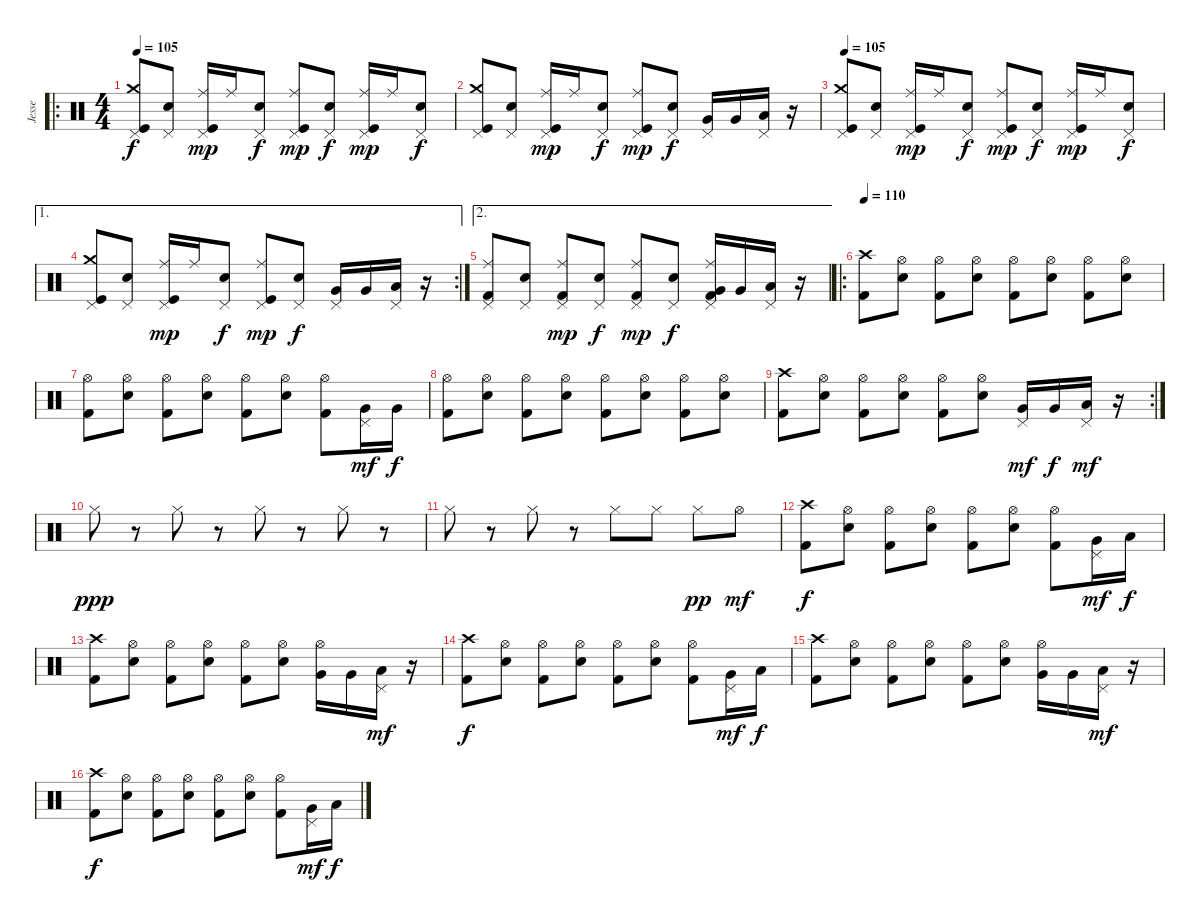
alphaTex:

\track ("Jesse" "Jesse") {instrument percussion}
\staff {score}
\articulation defaults
\ro
\ts (4 4)
\tempo 105
\clef neutral
\ks c
("Pedal Hi-Hat (hit)" "Crash medium (hit)" "Kick (hit)").8{dy f} ("Pedal Hi-Hat (hit)" "Electric Snare (hit)").8 ("Pedal Hi-Hat (hit)" "Ride (middle)" "Kick (hit)").16{dy mp} "Ride (middle)".16 ("Pedal Hi-Hat (hit)" "Electric Snare (hit)").8{dy f} ("Pedal Hi-Hat (hit)" "Ride (middle)" "Kick (hit)").8{dy mp} ("Pedal Hi-Hat (hit)" "Electric Snare (hit)").8{dy f} ("Pedal Hi-Hat (hit)" "Ride (middle)" "Kick (hit)").16{dy mp} "Ride (middle)".16 ("Pedal Hi-Hat (hit)" "Electric Snare (hit)").8{dy f} |
("Pedal Hi-Hat (hit)" "Crash medium (hit)" "Kick (hit)").8 ("Pedal Hi-Hat (hit)" "Electric Snare (hit)").8 ("Pedal Hi-Hat (hit)" "Ride (middle)" "Kick (hit)").16{dy mp} "Ride (middle)".16 ("Pedal Hi-Hat (hit)" "Electric Snare (hit)").8{dy f} ("Pedal Hi-Hat (hit)" "Ride (middle)" "Kick (hit)").8{dy mp} ("Pedal Hi-Hat (hit)" "Electric Snare (hit)").8{dy f} ("Pedal Hi-Hat (hit)" "Very Low Tom (hit)").16 "Very Low Tom (hit)".16 ("Pedal Hi-Hat (hit)" "Low Tom (hit)").16 r.16 |
\tempo 105
("Pedal Hi-Hat (hit)" "Crash medium (hit)" "Kick (hit)").8 ("Pedal Hi-Hat (hit)" "Electric Snare (hit)").8 ("Pedal Hi-Hat (hit)" "Ride (middle)" "Kick (hit)").16{dy mp} "Ride (middle)".16 ("Pedal Hi-Hat (hit)" "Electric Snare (hit)").8{dy f} ("Pedal Hi-Hat (hit)" "Ride (middle)" "Kick (hit)").8{dy mp} ("Pedal Hi-Hat (hit)" "Electric Snare (hit)").8{dy f} ("Pedal Hi-Hat (hit)" "Ride (middle)" "Kick (hit)").16{dy mp} "Ride (middle)".16 ("Pedal Hi-Hat (hit)" "Electric Snare (hit)").8{dy f} |
\ae 1
\rc 2
("Pedal Hi-Hat (hit)" "Crash medium (hit)" "Kick (hit)").8 ("Pedal Hi-Hat (hit)" "Electric Snare (hit)").8 ("Pedal Hi-Hat (hit)" "Ride (middle)" "Kick (hit)").16{dy mp} "Ride (middle)".16 ("Pedal Hi-Hat (hit)" "Electric Snare (hit)").8{dy f} ("Pedal Hi-Hat (hit)" "Ride (middle)" "Kick (hit)").8{dy mp} ("Pedal Hi-Hat (hit)" "Electric Snare (hit)").8{dy f} ("Pedal Hi-Hat (hit)" "Very Low Tom (hit)").16 "Very Low Tom (hit)".16 ("Pedal Hi-Hat (hit)" "Low Tom (hit)").16 r.16 |
\ae 2
("Pedal Hi-Hat (hit)" "Ride (middle)" "Kick (hit) 2").8 ("Pedal Hi-Hat (hit)" "Electric Snare (hit)").8 ("Pedal Hi-Hat (hit)" "Ride (middle)" "Kick (hit) 2").8{dy mp} ("Pedal Hi-Hat (hit)" "Electric Snare (hit)").8{dy f} ("Pedal Hi-Hat (hit)" "Ride (middle)" "Kick (hit) 2").8{dy mp} ("Pedal Hi-Hat (hit)" "Electric Snare (hit)").8{dy f} ("Pedal Hi-Hat (hit)" "Ride (middle)" "Very Low Tom (hit)" "Kick (hit) 2").16 "Very Low Tom (hit)".16 ("Pedal Hi-Hat (hit)" "Low Tom (hit)").16 r.16 |
\ro
\tempo 110
("Crash high (hit)" "Kick (hit) 2").8 ("Hi-Hat (open)" "Electric Snare (hit)").8 ("Hi-Hat (open)" "Kick (hit) 2").8 ("Hi-Hat (open)" "Electric Snare (hit)").8 ("Hi-Hat (open)" "Kick (hit) 2").8 ("Hi-Hat (open)" "Electric Snare (hit)").8 ("Hi-Hat (open)" "Kick (hit) 2").8 ("Hi-Hat (open)" "Electric Snare (hit)").8 |
("Hi-Hat (open)" "Kick (hit) 2").8 ("Hi-Hat (open)" "Electric Snare (hit)").8 ("Hi-Hat (open)" "Kick (hit) 2").8 ("Hi-Hat (open)" "Electric Snare (hit)").8 ("Hi-Hat (open)" "Kick (hit) 2").8 ("Hi-Hat (open)" "Electric Snare (hit)").8 ("Hi-Hat (open)" "Kick (hit) 2").8 ("Pedal Hi-Hat (hit)" "Very Low Tom (hit)").16{dy mf} "Very Low Tom (hit)".16{dy f} |
("Hi-Hat (open)" "Kick (hit) 2").8 ("Hi-Hat (open)" "Electric Snare (hit)").8 ("Hi-Hat (open)" "Kick (hit) 2").8 ("Hi-Hat (open)" "Electric Snare (hit)").8 ("Hi-Hat (open)" "Kick (hit) 2").8 ("Hi-Hat (open)" "Electric Snare (hit)").8 ("Hi-Hat (open)" "Kick (hit) 2").8 ("Hi-Hat (open)" "Electric Snare (hit)").8 |
\rc 2
("Crash high (hit)" "Kick (hit) 2").8 ("Hi-Hat (open)" "Electric Snare (hit)").8 ("Hi-Hat (open)" "Kick (hit) 2").8 ("Hi-Hat (open)" "Electric Snare (hit)").8 ("Hi-Hat (open)" "Kick (hit) 2").8 ("Hi-Hat (open)" "Electric Snare (hit)").8 ("Pedal Hi-Hat (hit)" "Very Low Tom (hit)").16{dy mf} "Very Low Tom (hit)".16{dy f} ("Pedal Hi-Hat (hit)" "Low Tom (hit)").16{dy mf} r.16 |
"Hi-Hat (closed)".8{dy ppp} r.8 "Hi-Hat (closed)".8 r.8 "Hi-Hat (closed)".8 r.8 "Hi-Hat (closed)".8 r.8 |
"Hi-Hat (closed)".8 r.8 "Hi-Hat (closed)".8 r.8 "Hi-Hat (closed)".8 "Hi-Hat (closed)".8 "Hi-Hat (closed)".8{dy pp} "Hi-Hat (open)".8{dy mf} |
("Crash high (hit)" "Kick (hit) 2").8{dy f} ("Hi-Hat (open)" "Electric Snare (hit)").8 ("Hi-Hat (open)" "Kick (hit) 2").8 ("Hi-Hat (open)" "Electric Snare (hit)").8 ("Hi-Hat (open)" "Kick (hit) 2").8 ("Hi-Hat (open)" "Electric Snare (hit)").8 ("Hi-Hat (open)" "Kick (hit) 2").8 ("Pedal Hi-Hat (hit)" "Very Low Tom (hit)").16{dy mf} "Low Tom (hit)".16{dy f} |
("Crash high (hit)" "Kick (hit) 2").8 ("Hi-Hat (open)" "Electric Snare (hit)").8 ("Hi-Hat (open)" "Kick (hit) 2").8 ("Hi-Hat (open)" "Electric Snare (hit)").8 ("Hi-Hat (open)" "Kick (hit) 2").8 ("Hi-Hat (open)" "Electric Snare (hit)").8 ("Hi-Hat (open)" "Very Low Tom (hit)").16 "Very Low Tom (hit)".16 ("Pedal Hi-Hat (hit)" "Low Tom (hit)").16{dy mf} r.16 |
("Crash high (hit)" "Kick (hit) 2").8{dy f} ("Hi-Hat (open)" "Electric Snare (hit)").8 ("Hi-Hat (open)" "Kick (hit) 2").8 ("Hi-Hat (open)" "Electric Snare (hit)").8 ("Hi-Hat (open)" "Kick (hit) 2").8 ("Hi-Hat (open)" "Electric Snare (hit)").8 ("Hi-Hat (open)" "Kick (hit) 2").8 ("Pedal Hi-Hat (hit)" "Very Low Tom (hit)").16{dy mf} "Low Tom (hit)".16{dy f} |
("Crash high (hit)" "Kick (hit) 2").8 ("Hi-Hat (open)" "Electric Snare (hit)").8 ("Hi-Hat (open)" "Kick (hit) 2").8 ("Hi-Hat (open)" "Electric Snare (hit)").8 ("Hi-Hat (open)" "Kick (hit) 2").8 ("Hi-Hat (open)" "Electric Snare (hit)").8 ("Hi-Hat (open)" "Very Low Tom (hit)").16 "Very Low Tom (hit)".16 ("Pedal Hi-Hat (hit)" "Low Tom (hit)").16{dy mf} r.16 |
("Crash high (hit)" "Kick (hit) 2").8{dy f} ("Hi-Hat (open)" "Electric Snare (hit)").8 ("Hi-Hat (open)" "Kick (hit) 2").8 ("Hi-Hat (open)" "Electric Snare (hit)").8 ("Hi-Hat (open)" "Kick (hit) 2").8 ("Hi-Hat (open)" "Electric Snare (hit)").8 ("Hi-Hat (open)" "Kick (hit) 2").8 ("Pedal Hi-Hat (hit)" "Very Low Tom (hit)").16{dy mf} "Low Tom (hit)".16{dy f}
